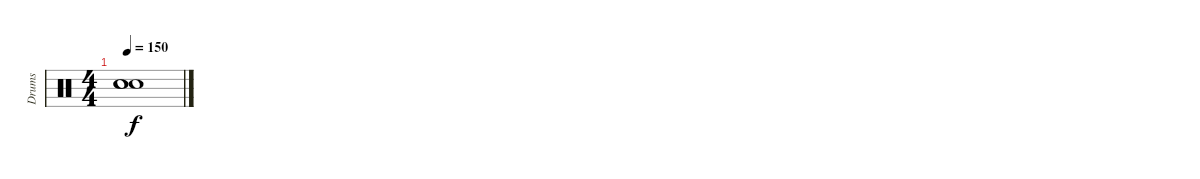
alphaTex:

\track ("Drums" "Drums") {instrument percussion}
\staff {score}
\articulation defaults
\ts (4 4)
\tempo 150
\clef neutral
\ks c
("Snare (hit)"{t} "Snare (hit)"{t} "Snare (hit)"{t}).1{dy f}
